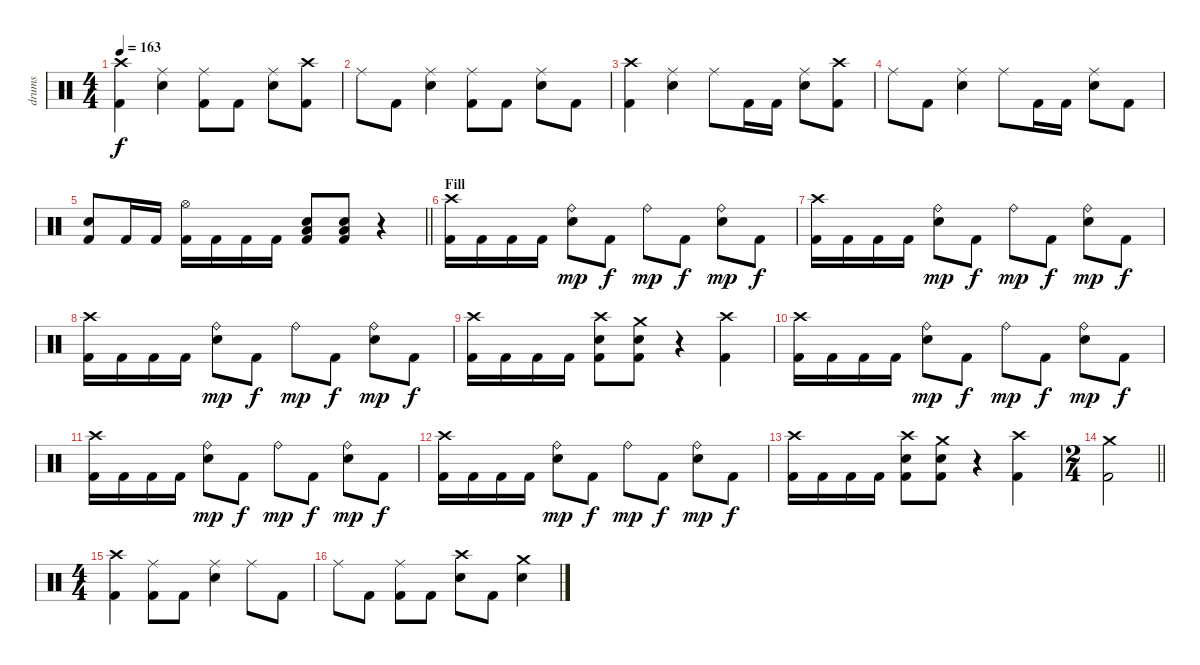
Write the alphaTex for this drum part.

\track ("drums" "drums") {instrument percussion}
\staff {score}
\articulation defaults
\ts (4 4)
\tempo 163
\clef neutral
\ks c
("Crash high (hit)" "Kick (hit) 2").4{dy f} ("Ride (middle)" "Snare (hit) 2").4 ("Ride (middle)" "Kick (hit) 2").8 "Kick (hit) 2".8 ("Ride (middle)" "Snare (hit) 2").8 ("Crash high (hit)" "Kick (hit) 2").8 |
"Ride (middle)".8 "Kick (hit) 2".8 ("Ride (middle)" "Snare (hit) 2").4 ("Ride (middle)" "Kick (hit) 2").8 "Kick (hit) 2".8 ("Ride (middle)" "Snare (hit) 2").8 "Kick (hit) 2".8 |
("Crash high (hit)" "Kick (hit) 2").4 ("Ride (middle)" "Snare (hit) 2").4 "Ride (middle)".8 "Kick (hit) 2".16 "Kick (hit) 2".16 ("Ride (middle)" "Snare (hit) 2").8 ("Crash high (hit)" "Kick (hit) 2").8 |
"Ride (middle)".8 "Kick (hit) 2".8 ("Ride (middle)" "Snare (hit) 2").4 "Ride (middle)".8 "Kick (hit) 2".16 "Kick (hit) 2".16 ("Ride (middle)" "Snare (hit) 2").8 "Kick (hit) 2".8 |
\barLineRight lightlight
("Snare (hit) 2" "Kick (hit) 2").8 "Kick (hit) 2".16 "Kick (hit) 2".16 ("Hi-Hat (open)" "Kick (hit) 2").16 "Kick (hit) 2".16 "Kick (hit) 2".16 "Kick (hit) 2".16 ("Low Floor Tom (hit)" "Snare (hit) 2" "Kick (hit) 2").8 ("Low Floor Tom (hit)" "Snare (hit) 2" "Kick (hit) 2").8 r.4 |
\section ("" "Fill")
("Crash high (hit)" "Kick (hit) 2").16 "Kick (hit) 2".16 "Kick (hit) 2".16 "Kick (hit) 2".16 ("Ride (bell)" "Snare (hit) 2").8{dy mp} "Kick (hit) 2".8{dy f} "Ride (bell)".8{dy mp} "Kick (hit) 2".8{dy f} ("Ride (bell)" "Snare (hit) 2").8{dy mp} "Kick (hit) 2".8{dy f} |
("Crash high (hit)" "Kick (hit) 2").16 "Kick (hit) 2".16 "Kick (hit) 2".16 "Kick (hit) 2".16 ("Ride (bell)" "Snare (hit) 2").8{dy mp} "Kick (hit) 2".8{dy f} "Ride (bell)".8{dy mp} "Kick (hit) 2".8{dy f} ("Ride (bell)" "Snare (hit) 2").8{dy mp} "Kick (hit) 2".8{dy f} |
("Crash high (hit)" "Kick (hit) 2").16 "Kick (hit) 2".16 "Kick (hit) 2".16 "Kick (hit) 2".16 ("Ride (bell)" "Snare (hit) 2").8{dy mp} "Kick (hit) 2".8{dy f} "Ride (bell)".8{dy mp} "Kick (hit) 2".8{dy f} ("Ride (bell)" "Snare (hit) 2").8{dy mp} "Kick (hit) 2".8{dy f} |
("Crash high (hit)" "Kick (hit) 2").16 "Kick (hit) 2".16 "Kick (hit) 2".16 "Kick (hit) 2".16 ("Crash high (hit)" "Snare (hit) 2" "Kick (hit) 2").8 ("Crash medium (hit)" "Snare (hit) 2" "Kick (hit) 2").8 r.4 ("Crash high (hit)" "Kick (hit) 2").4 |
("Crash high (hit)" "Kick (hit) 2").16 "Kick (hit) 2".16 "Kick (hit) 2".16 "Kick (hit) 2".16 ("Ride (bell)" "Snare (hit) 2").8{dy mp} "Kick (hit) 2".8{dy f} "Ride (bell)".8{dy mp} "Kick (hit) 2".8{dy f} ("Ride (bell)" "Snare (hit) 2").8{dy mp} "Kick (hit) 2".8{dy f} |
("Crash high (hit)" "Kick (hit) 2").16 "Kick (hit) 2".16 "Kick (hit) 2".16 "Kick (hit) 2".16 ("Ride (bell)" "Snare (hit) 2").8{dy mp} "Kick (hit) 2".8{dy f} "Ride (bell)".8{dy mp} "Kick (hit) 2".8{dy f} ("Ride (bell)" "Snare (hit) 2").8{dy mp} "Kick (hit) 2".8{dy f} |
("Crash high (hit)" "Kick (hit) 2").16 "Kick (hit) 2".16 "Kick (hit) 2".16 "Kick (hit) 2".16 ("Ride (bell)" "Snare (hit) 2").8{dy mp} "Kick (hit) 2".8{dy f} "Ride (bell)".8{dy mp} "Kick (hit) 2".8{dy f} ("Ride (bell)" "Snare (hit) 2").8{dy mp} "Kick (hit) 2".8{dy f} |
("Crash high (hit)" "Kick (hit) 2").16 "Kick (hit) 2".16 "Kick (hit) 2".16 "Kick (hit) 2".16 ("Crash high (hit)" "Snare (hit) 2" "Kick (hit) 2").8 ("Crash medium (hit)" "Snare (hit) 2" "Kick (hit) 2").8 r.4 ("Crash high (hit)" "Kick (hit) 2").4 |
\ts (2 4)
\barLineRight lightlight
("Crash medium (hit)" "Kick (hit) 2").2 |
\ts (4 4)
("Crash high (hit)" "Kick (hit) 2").4 ("Ride (middle)" "Kick (hit) 2").8 "Kick (hit) 2".8 ("Ride (middle)" "Snare (hit) 2").4 "Ride (middle)".8 "Kick (hit) 2".8 |
"Ride (middle)".8 "Kick (hit) 2".8 ("Ride (middle)" "Kick (hit) 2").8 "Kick (hit) 2".8 ("Crash high (hit)" "Snare (hit) 2").8 "Kick (hit) 2".8 ("Crash medium (hit)" "Snare (hit) 2").4
